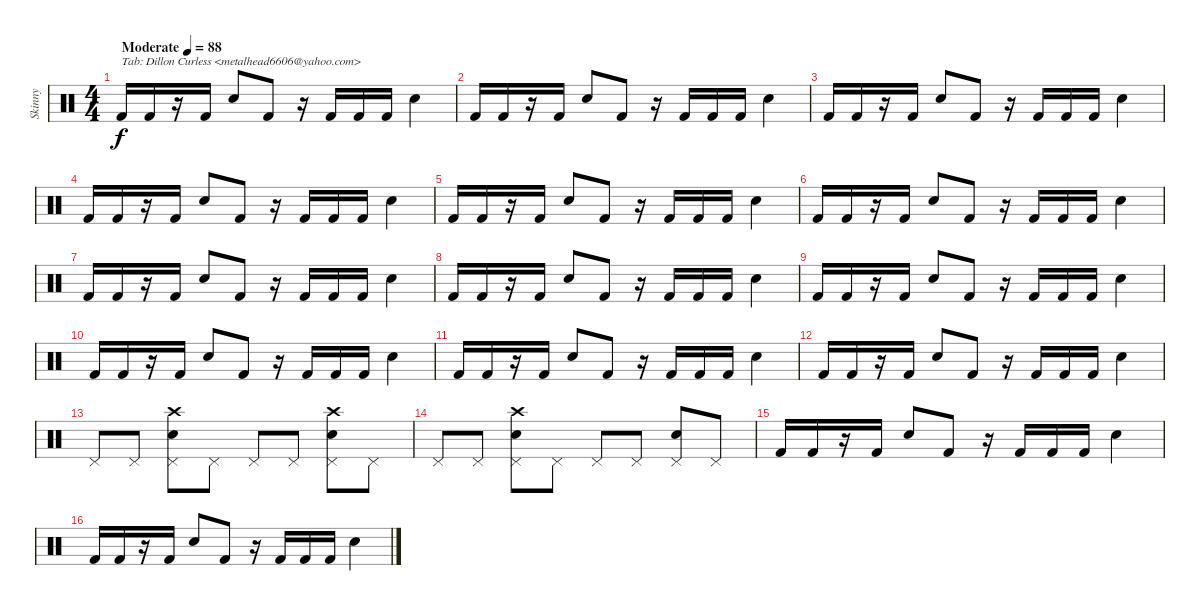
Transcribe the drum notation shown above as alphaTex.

\track ("Skinny" "Skinny") {instrument percussion}
\staff {score}
\articulation defaults
\ts (4 4)
\tempo (88 "Moderate")
\clef neutral
\ks c "Kick (hit) 2".16{txt "Tab: Dillon Curless <metalhead6606@yahoo.com>" dy f} "Kick (hit) 2".16
r.16 "Kick (hit) 2".16 "Snare (hit) 2".8 "Kick (hit) 2".8 r.16 "Kick (hit) 2".16 "Kick (hit) 2".16 "Kick (hit) 2".16 "Snare (hit) 2".4 |
"Kick (hit) 2".16 "Kick (hit) 2".16 r.16 "Kick (hit) 2".16 "Snare (hit) 2".8 "Kick (hit) 2".8 r.16 "Kick (hit) 2".16 "Kick (hit) 2".16 "Kick (hit) 2".16 "Snare (hit) 2".4 |
"Kick (hit) 2".16 "Kick (hit) 2".16 r.16 "Kick (hit) 2".16 "Snare (hit) 2".8 "Kick (hit) 2".8 r.16 "Kick (hit) 2".16 "Kick (hit) 2".16 "Kick (hit) 2".16 "Snare (hit) 2".4 |
"Kick (hit) 2".16 "Kick (hit) 2".16 r.16 "Kick (hit) 2".16 "Snare (hit) 2".8 "Kick (hit) 2".8 r.16 "Kick (hit) 2".16 "Kick (hit) 2".16 "Kick (hit) 2".16 "Snare (hit) 2".4 |
"Kick (hit) 2".16 "Kick (hit) 2".16 r.16 "Kick (hit) 2".16 "Snare (hit) 2".8 "Kick (hit) 2".8 r.16 "Kick (hit) 2".16 "Kick (hit) 2".16 "Kick (hit) 2".16 "Snare (hit) 2".4 |
"Kick (hit) 2".16 "Kick (hit) 2".16 r.16 "Kick (hit) 2".16 "Snare (hit) 2".8 "Kick (hit) 2".8 r.16 "Kick (hit) 2".16 "Kick (hit) 2".16 "Kick (hit) 2".16 "Snare (hit) 2".4 |
"Kick (hit) 2".16 "Kick (hit) 2".16 r.16 "Kick (hit) 2".16 "Snare (hit) 2".8 "Kick (hit) 2".8 r.16 "Kick (hit) 2".16 "Kick (hit) 2".16 "Kick (hit) 2".16 "Snare (hit) 2".4 |
"Kick (hit) 2".16 "Kick (hit) 2".16 r.16 "Kick (hit) 2".16 "Snare (hit) 2".8 "Kick (hit) 2".8 r.16 "Kick (hit) 2".16 "Kick (hit) 2".16 "Kick (hit) 2".16 "Snare (hit) 2".4 |
"Kick (hit) 2".16 "Kick (hit) 2".16 r.16 "Kick (hit) 2".16 "Snare (hit) 2".8 "Kick (hit) 2".8 r.16 "Kick (hit) 2".16 "Kick (hit) 2".16 "Kick (hit) 2".16 "Snare (hit) 2".4 |
"Kick (hit) 2".16 "Kick (hit) 2".16 r.16 "Kick (hit) 2".16 "Snare (hit) 2".8 "Kick (hit) 2".8 r.16 "Kick (hit) 2".16 "Kick (hit) 2".16 "Kick (hit) 2".16 "Snare (hit) 2".4 |
"Kick (hit) 2".16 "Kick (hit) 2".16 r.16 "Kick (hit) 2".16 "Snare (hit) 2".8 "Kick (hit) 2".8 r.16 "Kick (hit) 2".16 "Kick (hit) 2".16 "Kick (hit) 2".16 "Snare (hit) 2".4 |
"Kick (hit) 2".16 "Kick (hit) 2".16 r.16 "Kick (hit) 2".16 "Snare (hit) 2".8 "Kick (hit) 2".8 r.16 "Kick (hit) 2".16 "Kick (hit) 2".16 "Kick (hit) 2".16 "Snare (hit) 2".4 |
"Pedal Hi-Hat (hit)".8 "Pedal Hi-Hat (hit)".8 ("Pedal Hi-Hat (hit)" "Snare (hit) 2" "Crash high (hit)").8 "Pedal Hi-Hat (hit)".8 "Pedal Hi-Hat (hit)".8 "Pedal Hi-Hat (hit)".8 ("Pedal Hi-Hat (hit)" "Snare (hit) 2" "Crash high (hit)").8 "Pedal Hi-Hat (hit)".8 |
"Pedal Hi-Hat (hit)".8 "Pedal Hi-Hat (hit)".8 ("Pedal Hi-Hat (hit)" "Snare (hit) 2" "Crash high (hit)").8 "Pedal Hi-Hat (hit)".8 "Pedal Hi-Hat (hit)".8 "Pedal Hi-Hat (hit)".8 ("Pedal Hi-Hat (hit)" "Snare (hit) 2").8 "Pedal Hi-Hat (hit)".8 |
"Kick (hit) 2".16 "Kick (hit) 2".16 r.16 "Kick (hit) 2".16 "Snare (hit) 2".8 "Kick (hit) 2".8 r.16 "Kick (hit) 2".16 "Kick (hit) 2".16 "Kick (hit) 2".16 "Snare (hit) 2".4 |
"Kick (hit) 2".16 "Kick (hit) 2".16 r.16 "Kick (hit) 2".16 "Snare (hit) 2".8 "Kick (hit) 2".8 r.16 "Kick (hit) 2".16 "Kick (hit) 2".16 "Kick (hit) 2".16 "Snare (hit) 2".4
